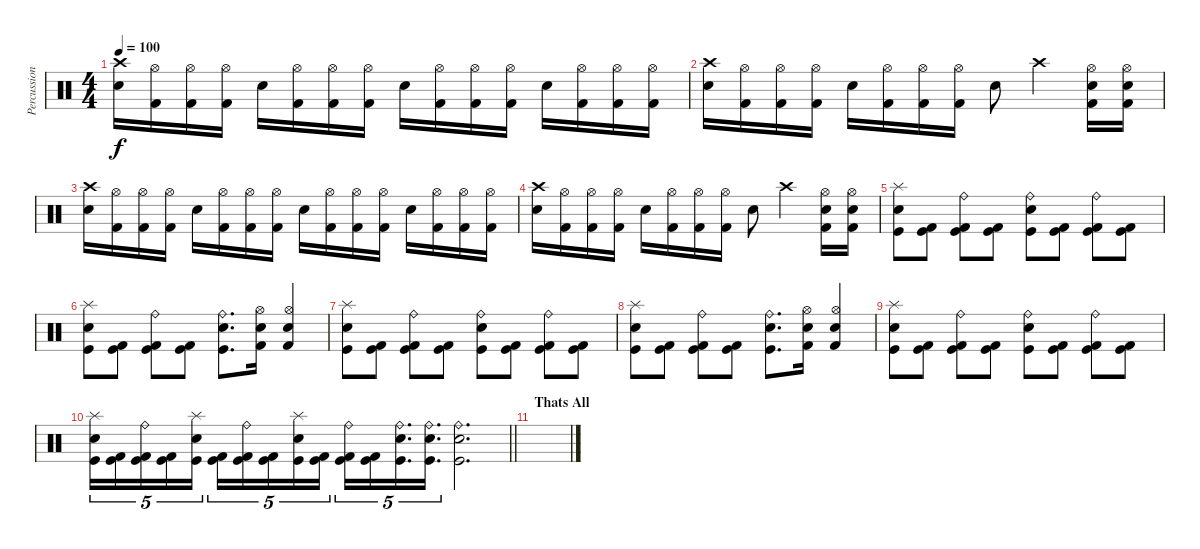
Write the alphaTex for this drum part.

\track ("Percussion" "Percussion") {instrument percussion}
\staff {score}
\articulation defaults
\ts (4 4)
\tempo 100
\clef neutral
\ks c
("Crash high (hit)" "Electric Snare (hit)").16{dy f} ("Hi-Hat (open)" "Kick (hit) 2").16 ("Hi-Hat (open)" "Kick (hit) 2").16 ("Hi-Hat (open)" "Kick (hit) 2").16 "Electric Snare (hit)".16 ("Hi-Hat (open)" "Kick (hit) 2").16 ("Hi-Hat (open)" "Kick (hit) 2").16 ("Hi-Hat (open)" "Kick (hit) 2").16 "Electric Snare (hit)".16 ("Hi-Hat (open)" "Kick (hit) 2").16 ("Hi-Hat (open)" "Kick (hit) 2").16 ("Hi-Hat (open)" "Kick (hit) 2").16 "Electric Snare (hit)".16 ("Hi-Hat (open)" "Kick (hit) 2").16 ("Hi-Hat (open)" "Kick (hit) 2").16 ("Hi-Hat (open)" "Kick (hit) 2").16 |
("Crash high (hit)" "Electric Snare (hit)").16 ("Hi-Hat (open)" "Kick (hit) 2").16 ("Hi-Hat (open)" "Kick (hit) 2").16 ("Hi-Hat (open)" "Kick (hit) 2").16 "Electric Snare (hit)".16 ("Hi-Hat (open)" "Kick (hit) 2").16 ("Hi-Hat (open)" "Kick (hit) 2").16 ("Hi-Hat (open)" "Kick (hit) 2").16 "Electric Snare (hit)".8 "Crash high (hit)".4 ("Hi-Hat (open)" "Snare (hit) 2" "Kick (hit) 2").16 ("Hi-Hat (open)" "Electric Snare (hit)" "Kick (hit) 2").16 |
("Crash high (hit)" "Electric Snare (hit)").16 ("Hi-Hat (open)" "Kick (hit) 2").16 ("Hi-Hat (open)" "Kick (hit) 2").16 ("Hi-Hat (open)" "Kick (hit) 2").16 "Electric Snare (hit)".16 ("Hi-Hat (open)" "Kick (hit) 2").16 ("Hi-Hat (open)" "Kick (hit) 2").16 ("Hi-Hat (open)" "Kick (hit) 2").16 "Electric Snare (hit)".16 ("Hi-Hat (open)" "Kick (hit) 2").16 ("Hi-Hat (open)" "Kick (hit) 2").16 ("Hi-Hat (open)" "Kick (hit) 2").16 "Electric Snare (hit)".16 ("Hi-Hat (open)" "Kick (hit) 2").16 ("Hi-Hat (open)" "Kick (hit) 2").16 ("Hi-Hat (open)" "Kick (hit) 2").16 |
("Crash high (hit)" "Electric Snare (hit)").16 ("Hi-Hat (open)" "Kick (hit) 2").16 ("Hi-Hat (open)" "Kick (hit) 2").16 ("Hi-Hat (open)" "Kick (hit) 2").16 "Electric Snare (hit)".16 ("Hi-Hat (open)" "Kick (hit) 2").16 ("Hi-Hat (open)" "Kick (hit) 2").16 ("Hi-Hat (open)" "Kick (hit) 2").16 "Electric Snare (hit)".8 "Crash high (hit)".4 ("Hi-Hat (open)" "Snare (hit) 2" "Kick (hit) 2").16 ("Hi-Hat (open)" "Electric Snare (hit)" "Kick (hit) 2").16 |
("Kick (hit)" "Electric Snare (hit)" "Splash (hit)").8 ("Kick (hit)" "Kick (hit) 2").8 ("Kick (hit)" "Kick (hit) 2" "Ride (bell)").8 ("Kick (hit)" "Kick (hit) 2").8 ("Kick (hit)" "Electric Snare (hit)" "Ride (bell)").8 ("Kick (hit)" "Kick (hit) 2").8 ("Kick (hit)" "Kick (hit) 2" "Ride (bell)").8 ("Kick (hit)" "Kick (hit) 2").8 |
("Kick (hit)" "Electric Snare (hit)" "Splash (hit)").8 ("Kick (hit)" "Kick (hit) 2").8 ("Kick (hit)" "Kick (hit) 2" "Ride (bell)").8 ("Kick (hit)" "Kick (hit) 2").8 ("Kick (hit)" "Electric Snare (hit)" "Ride (bell)").8{d} ("Hi-Hat (open)" "Snare (hit) 2" "Kick (hit) 2").16 ("Hi-Hat (open)" "Electric Snare (hit)" "Kick (hit) 2").4 |
("Kick (hit)" "Electric Snare (hit)" "Splash (hit)").8 ("Kick (hit)" "Kick (hit) 2").8 ("Kick (hit)" "Kick (hit) 2" "Ride (bell)").8 ("Kick (hit)" "Kick (hit) 2").8 ("Kick (hit)" "Electric Snare (hit)" "Ride (bell)").8 ("Kick (hit)" "Kick (hit) 2").8 ("Kick (hit)" "Kick (hit) 2" "Ride (bell)").8 ("Kick (hit)" "Kick (hit) 2").8 |
("Kick (hit)" "Electric Snare (hit)" "Splash (hit)").8 ("Kick (hit)" "Kick (hit) 2").8 ("Kick (hit)" "Kick (hit) 2" "Ride (bell)").8 ("Kick (hit)" "Kick (hit) 2").8 ("Kick (hit)" "Electric Snare (hit)" "Ride (bell)").8{d} ("Hi-Hat (open)" "Snare (hit) 2" "Kick (hit) 2").16 ("Hi-Hat (open)" "Electric Snare (hit)" "Kick (hit) 2").4 |
("Kick (hit)" "Electric Snare (hit)" "Splash (hit)").8 ("Kick (hit)" "Kick (hit) 2").8 ("Kick (hit)" "Kick (hit) 2" "Ride (bell)").8 ("Kick (hit)" "Kick (hit) 2").8 ("Kick (hit)" "Electric Snare (hit)" "Ride (bell)").8 ("Kick (hit)" "Kick (hit) 2").8 ("Kick (hit)" "Kick (hit) 2" "Ride (bell)").8 ("Kick (hit)" "Kick (hit) 2").8 |
\barLineRight lightlight
("Kick (hit)" "Electric Snare (hit)" "Splash (hit)").16{tu (5 4)} ("Kick (hit)" "Kick (hit) 2").16{tu (5 4)} ("Kick (hit)" "Kick (hit) 2" "Ride (bell)").16{tu (5 4)} ("Kick (hit)" "Kick (hit) 2").16{tu (5 4)} ("Kick (hit)" "Electric Snare (hit)" "Splash (hit)").16{tu (5 4)} ("Kick (hit)" "Kick (hit) 2").16{tu (5 4)} ("Kick (hit)" "Kick (hit) 2" "Ride (bell)").16{tu (5 4)} ("Kick (hit)" "Kick (hit) 2").16{tu (5 4)} ("Kick (hit)" "Electric Snare (hit)" "Splash (hit)").16{tu (5 4)} ("Kick (hit)" "Kick (hit) 2").16{tu (5 4)} ("Kick (hit)" "Kick (hit) 2" "Ride (bell)").16{tu (5 4)} ("Kick (hit)" "Kick (hit) 2").16{tu (5 4)} ("Kick (hit)" "Electric Snare (hit)" "Ride (bell)").16{d tu (5 4)} ("Kick (hit)" "Electric Snare (hit)" "Ride (bell)").16{d tu (5 4)} ("Kick (hit)" "Electric Snare (hit)" "Ride (bell)").2{d} |
\section ("" "Thats All")
